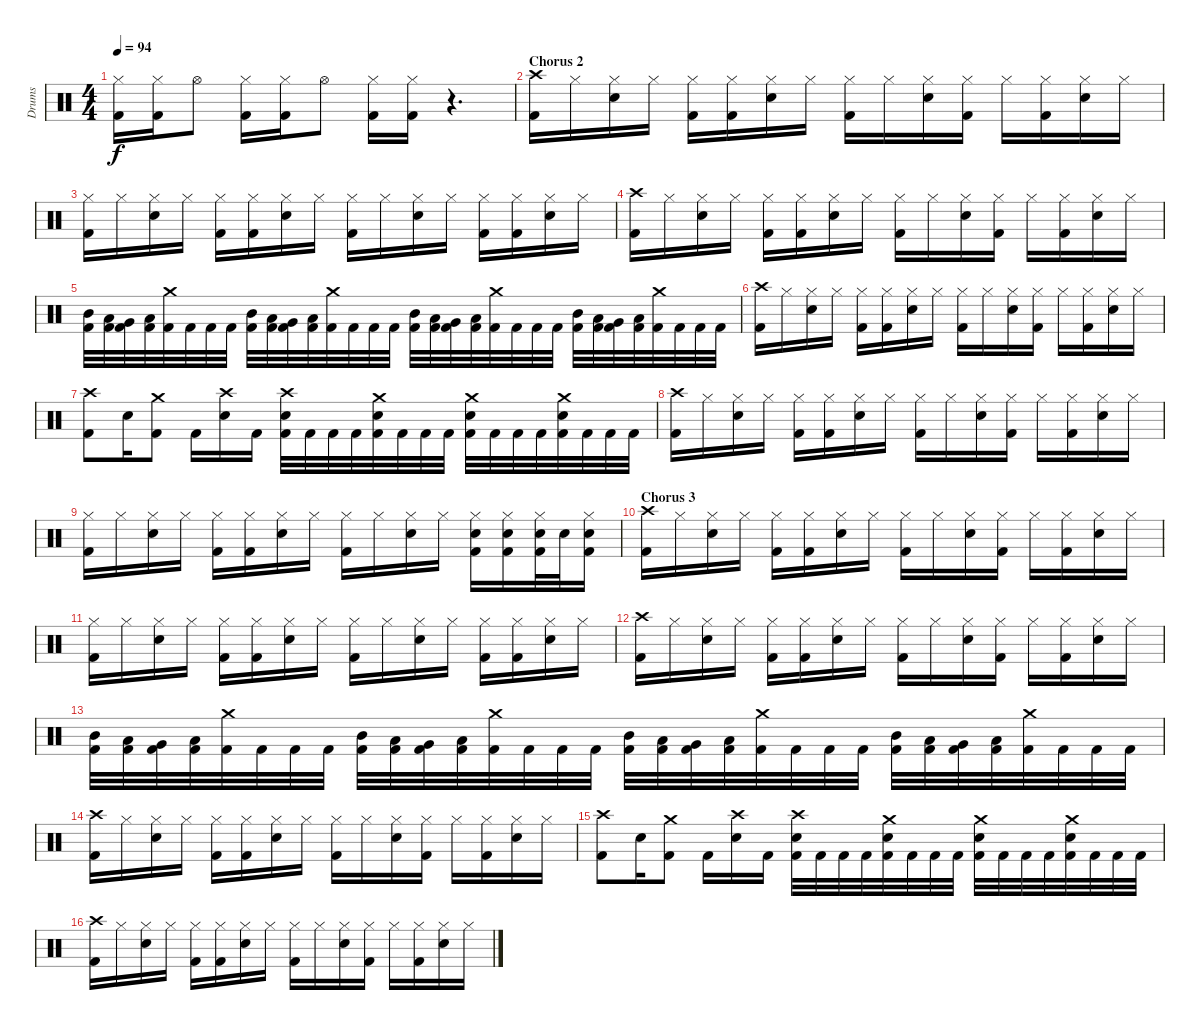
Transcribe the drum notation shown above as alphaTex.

\track ("Drums" "Drums") {instrument percussion}
\staff {score}
\articulation defaults
\ts (4 4)
\tempo 94
\clef neutral
\ks c
("Hi-Hat (closed)" "Kick (hit) 2").16{dy f} ("Hi-Hat (closed)" "Kick (hit) 2").16 "Hi-Hat (open)".8 ("Hi-Hat (closed)" "Kick (hit) 2").16 ("Hi-Hat (closed)" "Kick (hit) 2").16 "Hi-Hat (open)".8 ("Hi-Hat (closed)" "Kick (hit) 2").16 ("Hi-Hat (closed)" "Kick (hit) 2").16 r.4{d} |
\section ("" "Chorus 2")
("Crash high (hit)" "Kick (hit) 2").16 "Hi-Hat (closed)".16 ("Hi-Hat (closed)" "Electric Snare (hit)").16 "Hi-Hat (closed)".16 ("Hi-Hat (closed)" "Kick (hit) 2").16 ("Hi-Hat (closed)" "Kick (hit) 2").16 ("Hi-Hat (closed)" "Electric Snare (hit)").16 "Hi-Hat (closed)".16 ("Hi-Hat (closed)" "Kick (hit) 2").16 "Hi-Hat (closed)".16 ("Hi-Hat (closed)" "Electric Snare (hit)").16 ("Hi-Hat (closed)" "Kick (hit) 2").16 "Hi-Hat (closed)".16 ("Hi-Hat (closed)" "Kick (hit) 2").16 ("Hi-Hat (closed)" "Electric Snare (hit)").16 "Hi-Hat (closed)".16 |
("Hi-Hat (closed)" "Kick (hit) 2").16 "Hi-Hat (closed)".16 ("Hi-Hat (closed)" "Electric Snare (hit)").16 "Hi-Hat (closed)".16 ("Hi-Hat (closed)" "Kick (hit) 2").16 ("Hi-Hat (closed)" "Kick (hit) 2").16 ("Hi-Hat (closed)" "Electric Snare (hit)").16 "Hi-Hat (closed)".16 ("Hi-Hat (closed)" "Kick (hit) 2").16 "Hi-Hat (closed)".16 ("Hi-Hat (closed)" "Electric Snare (hit)").16 "Hi-Hat (closed)".16 ("Hi-Hat (closed)" "Kick (hit) 2").16 ("Hi-Hat (closed)" "Kick (hit) 2").16 ("Hi-Hat (closed)" "Electric Snare (hit)").16 "Hi-Hat (closed)".16 |
("Crash high (hit)" "Kick (hit) 2").16 "Hi-Hat (closed)".16 ("Hi-Hat (closed)" "Electric Snare (hit)").16 "Hi-Hat (closed)".16 ("Hi-Hat (closed)" "Kick (hit) 2").16 ("Hi-Hat (closed)" "Kick (hit) 2").16 ("Hi-Hat (closed)" "Electric Snare (hit)").16 "Hi-Hat (closed)".16 ("Hi-Hat (closed)" "Kick (hit) 2").16 "Hi-Hat (closed)".16 ("Hi-Hat (closed)" "Electric Snare (hit)").16 ("Hi-Hat (closed)" "Kick (hit) 2").16 "Hi-Hat (closed)".16 ("Hi-Hat (closed)" "Kick (hit) 2").16 ("Hi-Hat (closed)" "Electric Snare (hit)").16 "Hi-Hat (closed)".16 |
("Mid Tom (hit)" "Kick (hit) 2").32 ("Low Tom (hit)" "Kick (hit) 2").32 ("Very Low Tom (hit)" "Kick (hit) 2").32 ("Low Floor Tom (hit)" "Kick (hit) 2").32 ("Crash medium (hit)" "Kick (hit) 2").32 "Kick (hit) 2".32 "Kick (hit) 2".32 "Kick (hit) 2".32 ("Mid Tom (hit)" "Kick (hit) 2").32 ("Low Tom (hit)" "Kick (hit) 2").32 ("Very Low Tom (hit)" "Kick (hit) 2").32 ("Low Floor Tom (hit)" "Kick (hit) 2").32 ("Crash medium (hit)" "Kick (hit) 2").32 "Kick (hit) 2".32 "Kick (hit) 2".32 "Kick (hit) 2".32 ("Mid Tom (hit)" "Kick (hit) 2").32 ("Low Tom (hit)" "Kick (hit) 2").32 ("Very Low Tom (hit)" "Kick (hit) 2").32 ("Low Floor Tom (hit)" "Kick (hit) 2").32 ("Crash medium (hit)" "Kick (hit) 2").32 "Kick (hit) 2".32 "Kick (hit) 2".32 "Kick (hit) 2".32 ("Mid Tom (hit)" "Kick (hit) 2").32 ("Low Tom (hit)" "Kick (hit) 2").32 ("Very Low Tom (hit)" "Kick (hit) 2").32 ("Low Floor Tom (hit)" "Kick (hit) 2").32 ("Crash medium (hit)" "Kick (hit) 2").32 "Kick (hit) 2".32 "Kick (hit) 2".32 "Kick (hit) 2".32 |
("Crash high (hit)" "Kick (hit) 2").16 "Hi-Hat (closed)".16 ("Hi-Hat (closed)" "Electric Snare (hit)").16 "Hi-Hat (closed)".16 ("Hi-Hat (closed)" "Kick (hit) 2").16 ("Hi-Hat (closed)" "Kick (hit) 2").16 ("Hi-Hat (closed)" "Electric Snare (hit)").16 "Hi-Hat (closed)".16 ("Hi-Hat (closed)" "Kick (hit) 2").16 "Hi-Hat (closed)".16 ("Hi-Hat (closed)" "Electric Snare (hit)").16 ("Hi-Hat (closed)" "Kick (hit) 2").16 "Hi-Hat (closed)".16 ("Hi-Hat (closed)" "Kick (hit) 2").16 ("Hi-Hat (closed)" "Electric Snare (hit)").16 "Hi-Hat (closed)".16 |
("Crash high (hit)" "Kick (hit) 2").8 "Electric Snare (hit)".16 ("Crash medium (hit)" "Kick (hit) 2").8 "Kick (hit) 2".16 ("Crash high (hit)" "Electric Snare (hit)").16 "Kick (hit) 2".16 ("Crash high (hit)" "Electric Snare (hit)" "Kick (hit) 2").32 "Kick (hit) 2".32 "Kick (hit) 2".32 "Kick (hit) 2".32 ("Crash medium (hit)" "Electric Snare (hit)" "Kick (hit) 2").32 "Kick (hit) 2".32 "Kick (hit) 2".32 "Kick (hit) 2".32 ("Crash medium (hit)" "Electric Snare (hit)" "Kick (hit) 2").32 "Kick (hit) 2".32 "Kick (hit) 2".32 "Kick (hit) 2".32 ("Crash medium (hit)" "Electric Snare (hit)" "Kick (hit) 2").32 "Kick (hit) 2".32 "Kick (hit) 2".32 "Kick (hit) 2".32 |
("Crash high (hit)" "Kick (hit) 2").16 "Hi-Hat (closed)".16 ("Hi-Hat (closed)" "Electric Snare (hit)").16 "Hi-Hat (closed)".16 ("Hi-Hat (closed)" "Kick (hit) 2").16 ("Hi-Hat (closed)" "Kick (hit) 2").16 ("Hi-Hat (closed)" "Electric Snare (hit)").16 "Hi-Hat (closed)".16 ("Hi-Hat (closed)" "Kick (hit) 2").16 "Hi-Hat (closed)".16 ("Hi-Hat (closed)" "Electric Snare (hit)").16 ("Hi-Hat (closed)" "Kick (hit) 2").16 "Hi-Hat (closed)".16 ("Hi-Hat (closed)" "Kick (hit) 2").16 ("Hi-Hat (closed)" "Electric Snare (hit)").16 "Hi-Hat (closed)".16 |
("Hi-Hat (closed)" "Kick (hit) 2").16 "Hi-Hat (closed)".16 ("Hi-Hat (closed)" "Electric Snare (hit)").16 "Hi-Hat (closed)".16 ("Hi-Hat (closed)" "Kick (hit) 2").16 ("Hi-Hat (closed)" "Kick (hit) 2").16 ("Hi-Hat (closed)" "Electric Snare (hit)").16 "Hi-Hat (closed)".16 ("Hi-Hat (closed)" "Kick (hit) 2").16 "Hi-Hat (closed)".16 ("Hi-Hat (closed)" "Electric Snare (hit)").16 "Hi-Hat (closed)".16 ("Hi-Hat (closed)" "Electric Snare (hit)" "Kick (hit) 2").16 ("Hi-Hat (closed)" "Electric Snare (hit)" "Kick (hit) 2").16 ("Hi-Hat (closed)" "Electric Snare (hit)" "Kick (hit) 2").32 "Electric Snare (hit)".32 ("Hi-Hat (closed)" "Electric Snare (hit)" "Kick (hit) 2").16 |
\section ("" "Chorus 3")
("Crash high (hit)" "Kick (hit) 2").16 "Hi-Hat (closed)".16 ("Hi-Hat (closed)" "Electric Snare (hit)").16 "Hi-Hat (closed)".16 ("Hi-Hat (closed)" "Kick (hit) 2").16 ("Hi-Hat (closed)" "Kick (hit) 2").16 ("Hi-Hat (closed)" "Electric Snare (hit)").16 "Hi-Hat (closed)".16 ("Hi-Hat (closed)" "Kick (hit) 2").16 "Hi-Hat (closed)".16 ("Hi-Hat (closed)" "Electric Snare (hit)").16 ("Hi-Hat (closed)" "Kick (hit) 2").16 "Hi-Hat (closed)".16 ("Hi-Hat (closed)" "Kick (hit) 2").16 ("Hi-Hat (closed)" "Electric Snare (hit)").16 "Hi-Hat (closed)".16 |
("Hi-Hat (closed)" "Kick (hit) 2").16 "Hi-Hat (closed)".16 ("Hi-Hat (closed)" "Electric Snare (hit)").16 "Hi-Hat (closed)".16 ("Hi-Hat (closed)" "Kick (hit) 2").16 ("Hi-Hat (closed)" "Kick (hit) 2").16 ("Hi-Hat (closed)" "Electric Snare (hit)").16 "Hi-Hat (closed)".16 ("Hi-Hat (closed)" "Kick (hit) 2").16 "Hi-Hat (closed)".16 ("Hi-Hat (closed)" "Electric Snare (hit)").16 "Hi-Hat (closed)".16 ("Hi-Hat (closed)" "Kick (hit) 2").16 ("Hi-Hat (closed)" "Kick (hit) 2").16 ("Hi-Hat (closed)" "Electric Snare (hit)").16 "Hi-Hat (closed)".16 |
("Crash high (hit)" "Kick (hit) 2").16 "Hi-Hat (closed)".16 ("Hi-Hat (closed)" "Electric Snare (hit)").16 "Hi-Hat (closed)".16 ("Hi-Hat (closed)" "Kick (hit) 2").16 ("Hi-Hat (closed)" "Kick (hit) 2").16 ("Hi-Hat (closed)" "Electric Snare (hit)").16 "Hi-Hat (closed)".16 ("Hi-Hat (closed)" "Kick (hit) 2").16 "Hi-Hat (closed)".16 ("Hi-Hat (closed)" "Electric Snare (hit)").16 ("Hi-Hat (closed)" "Kick (hit) 2").16 "Hi-Hat (closed)".16 ("Hi-Hat (closed)" "Kick (hit) 2").16 ("Hi-Hat (closed)" "Electric Snare (hit)").16 "Hi-Hat (closed)".16 |
("Mid Tom (hit)" "Kick (hit) 2").32 ("Low Tom (hit)" "Kick (hit) 2").32 ("Very Low Tom (hit)" "Kick (hit) 2").32 ("Low Floor Tom (hit)" "Kick (hit) 2").32 ("Crash medium (hit)" "Kick (hit) 2").32 "Kick (hit) 2".32 "Kick (hit) 2".32 "Kick (hit) 2".32 ("Mid Tom (hit)" "Kick (hit) 2").32 ("Low Tom (hit)" "Kick (hit) 2").32 ("Very Low Tom (hit)" "Kick (hit) 2").32 ("Low Floor Tom (hit)" "Kick (hit) 2").32 ("Crash medium (hit)" "Kick (hit) 2").32 "Kick (hit) 2".32 "Kick (hit) 2".32 "Kick (hit) 2".32 ("Mid Tom (hit)" "Kick (hit) 2").32 ("Low Tom (hit)" "Kick (hit) 2").32 ("Very Low Tom (hit)" "Kick (hit) 2").32 ("Low Floor Tom (hit)" "Kick (hit) 2").32 ("Crash medium (hit)" "Kick (hit) 2").32 "Kick (hit) 2".32 "Kick (hit) 2".32 "Kick (hit) 2".32 ("Mid Tom (hit)" "Kick (hit) 2").32 ("Low Tom (hit)" "Kick (hit) 2").32 ("Very Low Tom (hit)" "Kick (hit) 2").32 ("Low Floor Tom (hit)" "Kick (hit) 2").32 ("Crash medium (hit)" "Kick (hit) 2").32 "Kick (hit) 2".32 "Kick (hit) 2".32 "Kick (hit) 2".32 |
("Crash high (hit)" "Kick (hit) 2").16 "Hi-Hat (closed)".16 ("Hi-Hat (closed)" "Electric Snare (hit)").16 "Hi-Hat (closed)".16 ("Hi-Hat (closed)" "Kick (hit) 2").16 ("Hi-Hat (closed)" "Kick (hit) 2").16 ("Hi-Hat (closed)" "Electric Snare (hit)").16 "Hi-Hat (closed)".16 ("Hi-Hat (closed)" "Kick (hit) 2").16 "Hi-Hat (closed)".16 ("Hi-Hat (closed)" "Electric Snare (hit)").16 ("Hi-Hat (closed)" "Kick (hit) 2").16 "Hi-Hat (closed)".16 ("Hi-Hat (closed)" "Kick (hit) 2").16 ("Hi-Hat (closed)" "Electric Snare (hit)").16 "Hi-Hat (closed)".16 |
("Crash high (hit)" "Kick (hit) 2").8 "Electric Snare (hit)".16 ("Crash medium (hit)" "Kick (hit) 2").8 "Kick (hit) 2".16 ("Crash high (hit)" "Electric Snare (hit)").16 "Kick (hit) 2".16 ("Crash high (hit)" "Electric Snare (hit)" "Kick (hit) 2").32 "Kick (hit) 2".32 "Kick (hit) 2".32 "Kick (hit) 2".32 ("Crash medium (hit)" "Electric Snare (hit)" "Kick (hit) 2").32 "Kick (hit) 2".32 "Kick (hit) 2".32 "Kick (hit) 2".32 ("Crash medium (hit)" "Electric Snare (hit)" "Kick (hit) 2").32 "Kick (hit) 2".32 "Kick (hit) 2".32 "Kick (hit) 2".32 ("Crash medium (hit)" "Electric Snare (hit)" "Kick (hit) 2").32 "Kick (hit) 2".32 "Kick (hit) 2".32 "Kick (hit) 2".32 |
("Crash high (hit)" "Kick (hit) 2").16 "Hi-Hat (closed)".16 ("Hi-Hat (closed)" "Electric Snare (hit)").16 "Hi-Hat (closed)".16 ("Hi-Hat (closed)" "Kick (hit) 2").16 ("Hi-Hat (closed)" "Kick (hit) 2").16 ("Hi-Hat (closed)" "Electric Snare (hit)").16 "Hi-Hat (closed)".16 ("Hi-Hat (closed)" "Kick (hit) 2").16 "Hi-Hat (closed)".16 ("Hi-Hat (closed)" "Electric Snare (hit)").16 ("Hi-Hat (closed)" "Kick (hit) 2").16 "Hi-Hat (closed)".16 ("Hi-Hat (closed)" "Kick (hit) 2").16 ("Hi-Hat (closed)" "Electric Snare (hit)").16 "Hi-Hat (closed)".16
